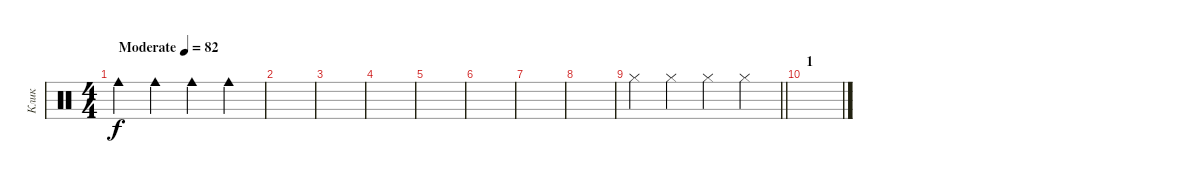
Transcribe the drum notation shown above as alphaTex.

\track ("Клик" "Клик") {mute instrument percussion}
\staff {score}
\articulation defaults
\ts (4 4)
\tempo (82 "Moderate")
\clef neutral
\ks c "Cowbell medium (hit)".4{dy f} "Cowbell medium (hit)".4 "Cowbell medium (hit)".4 "Cowbell medium (hit)".4
|
|
|
|
|
|
|
|
\barLineRight lightlight "Hi-Hat (closed)".4 "Hi-Hat (closed)".4 "Hi-Hat (closed)".4 "Hi-Hat (closed)".4
|
\section ("" "1")
